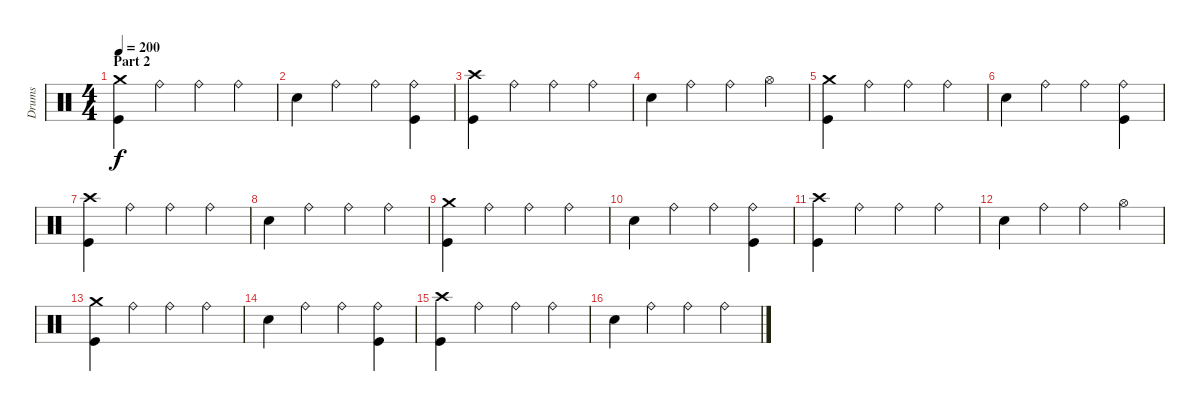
\track ("Drums" "Drums") {instrument percussion}
\staff {score}
\articulation defaults
\ts (4 4)
\section ("" "Part 2")
\tempo 200
\clef neutral
\ks c
("Crash medium (hit)" "Kick (hit)").4{dy f} "Ride (bell)".4 "Ride (bell)".4 "Ride (bell)".4 |
"Electric Snare (hit)".4 "Ride (bell)".4 "Ride (bell)".4 ("Ride (bell)" "Kick (hit)").4 |
("Crash high (hit)" "Kick (hit)").4 "Ride (bell)".4 "Ride (bell)".4 "Ride (bell)".4 |
"Electric Snare (hit)".4 "Ride (bell)".4 "Ride (bell)".4 "Hi-Hat (open)".4 |
("Crash medium (hit)" "Kick (hit)").4 "Ride (bell)".4 "Ride (bell)".4 "Ride (bell)".4 |
"Electric Snare (hit)".4 "Ride (bell)".4 "Ride (bell)".4 ("Ride (bell)" "Kick (hit)").4 |
("Crash high (hit)" "Kick (hit)").4 "Ride (bell)".4 "Ride (bell)".4 "Ride (bell)".4 |
"Electric Snare (hit)".4 "Ride (bell)".4 "Ride (bell)".4 "Ride (bell)".4 |
("Crash medium (hit)" "Kick (hit)").4 "Ride (bell)".4 "Ride (bell)".4 "Ride (bell)".4 |
"Electric Snare (hit)".4 "Ride (bell)".4 "Ride (bell)".4 ("Ride (bell)" "Kick (hit)").4 |
("Crash high (hit)" "Kick (hit)").4 "Ride (bell)".4 "Ride (bell)".4 "Ride (bell)".4 |
"Electric Snare (hit)".4 "Ride (bell)".4 "Ride (bell)".4 "Hi-Hat (open)".4 |
("Crash medium (hit)" "Kick (hit)").4 "Ride (bell)".4 "Ride (bell)".4 "Ride (bell)".4 |
"Electric Snare (hit)".4 "Ride (bell)".4 "Ride (bell)".4 ("Ride (bell)" "Kick (hit)").4 |
("Crash high (hit)" "Kick (hit)").4 "Ride (bell)".4 "Ride (bell)".4 "Ride (bell)".4 |
"Electric Snare (hit)".4 "Ride (bell)".4 "Ride (bell)".4 "Ride (bell)".4
